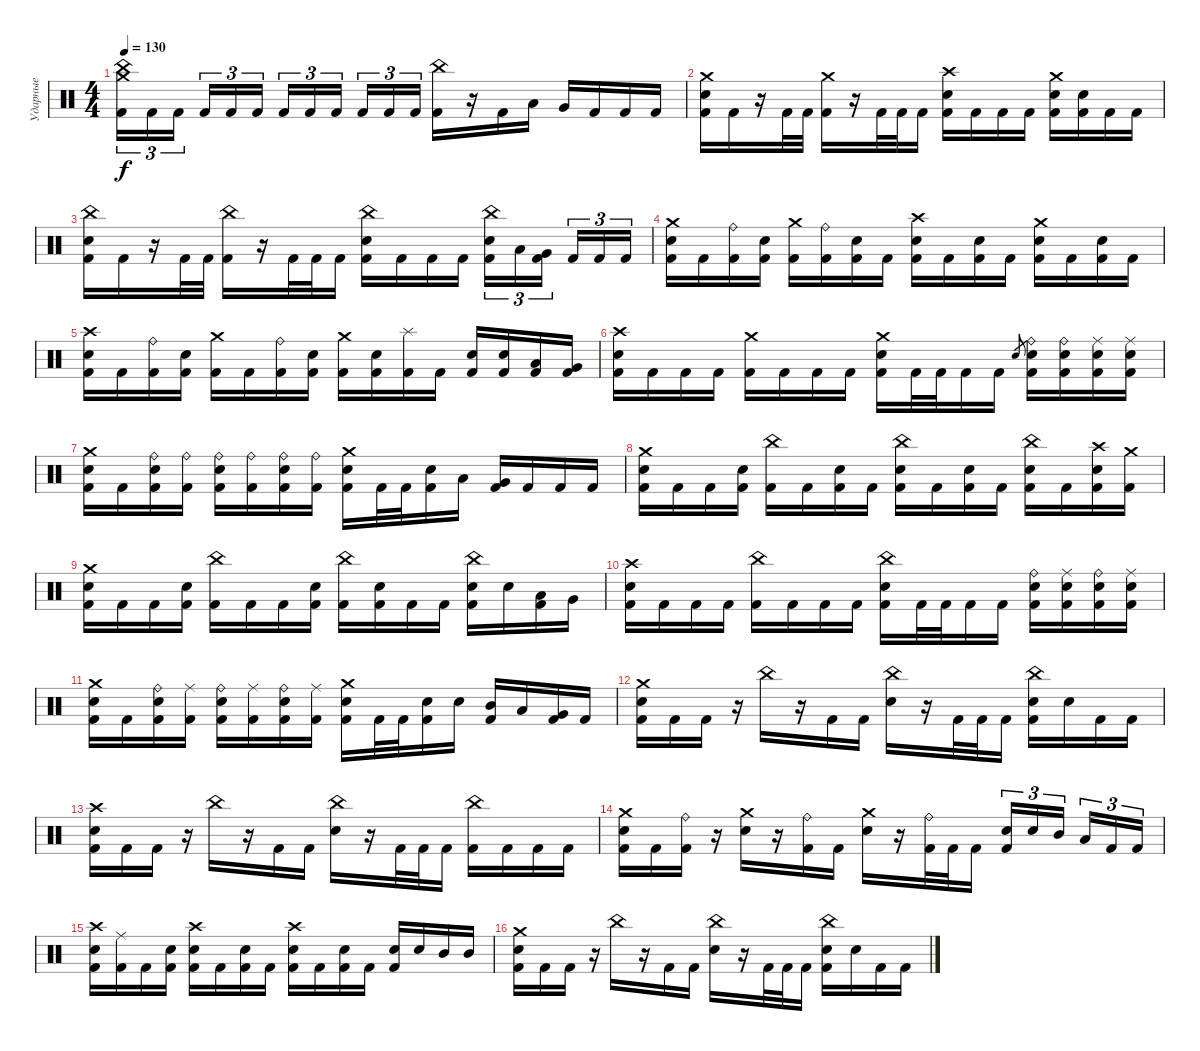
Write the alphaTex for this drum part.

\track ("Ударные" "Ударные") {instrument percussion}
\staff {score}
\articulation defaults
\ts (4 4)
\tempo 130
\clef neutral
\ks c
("China (hit)" "Crash medium (hit)" "Kick (hit) 2").16{tu (3 2) dy f} "Kick (hit) 2".16{tu (3 2)} "Kick (hit) 2".16{tu (3 2) beam splitsecondary} "Kick (hit) 2".16{tu (3 2)} "Kick (hit) 2".16{tu (3 2)} "Kick (hit) 2".16{tu (3 2)} "Kick (hit) 2".16{tu (3 2)} "Kick (hit) 2".16{tu (3 2)} "Kick (hit) 2".16{tu (3 2) beam splitsecondary} "Kick (hit) 2".16{tu (3 2)} "Kick (hit) 2".16{tu (3 2)} "Kick (hit) 2".16{tu (3 2)} ("China (hit)" "Kick (hit) 2").16 r.16 "Kick (hit) 2".16 "Low Tom (hit)".16 "Very Low Tom (hit)".16 "Kick (hit) 2".16 "Kick (hit) 2".16 "Kick (hit) 2".16 |
("Crash medium (hit)" "Electric Snare (hit)" "Kick (hit) 2").16 "Kick (hit) 2".16 r.16 "Kick (hit) 2".32 "Kick (hit) 2".32 ("Crash medium (hit)" "Kick (hit) 2").16 r.16 "Kick (hit) 2".32 "Kick (hit) 2".32 "Kick (hit) 2".16 ("Crash high (hit)" "Electric Snare (hit)" "Kick (hit) 2").16 "Kick (hit) 2".16 "Kick (hit) 2".16 "Kick (hit) 2".16 ("Crash medium (hit)" "Electric Snare (hit)" "Kick (hit) 2").16 ("Electric Snare (hit)" "Kick (hit) 2").16 "Kick (hit) 2".16 "Kick (hit) 2".16 |
("China (hit)" "Electric Snare (hit)" "Kick (hit) 2").16 "Kick (hit) 2".16 r.16 "Kick (hit) 2".32 "Kick (hit) 2".32 ("China (hit)" "Kick (hit) 2").16 r.16 "Kick (hit) 2".32 "Kick (hit) 2".32 "Kick (hit) 2".16 ("China (hit)" "Electric Snare (hit)" "Kick (hit) 2").16 "Kick (hit) 2".16 "Kick (hit) 2".16 "Kick (hit) 2".16 ("China (hit)" "Electric Snare (hit)" "Kick (hit) 2").16{tu (3 2)} "Low Tom (hit)".16{tu (3 2)} ("Very Low Tom (hit)" "Kick (hit) 2").16{tu (3 2) beam splitsecondary} "Kick (hit) 2".16{tu (3 2)} "Kick (hit) 2".16{tu (3 2)} "Kick (hit) 2".16{tu (3 2)} |
("Crash medium (hit)" "Electric Snare (hit)" "Kick (hit) 2").16 "Kick (hit) 2".16 ("Ride (bell)" "Kick (hit) 2").16 ("Electric Snare (hit)" "Kick (hit) 2").16 ("Crash medium (hit)" "Kick (hit) 2").16 ("Ride (bell)" "Kick (hit) 2").16 ("Electric Snare (hit)" "Kick (hit) 2").16 "Kick (hit) 2".16 ("Crash high (hit)" "Electric Snare (hit)" "Kick (hit) 2").16 "Kick (hit) 2".16 ("Electric Snare (hit)" "Kick (hit) 2").16 "Kick (hit) 2".16 ("Crash medium (hit)" "Electric Snare (hit)" "Kick (hit) 2").16 "Kick (hit) 2".16 ("Electric Snare (hit)" "Kick (hit) 2").16 "Kick (hit) 2".16 |
("Crash high (hit)" "Electric Snare (hit)" "Kick (hit) 2").16 "Kick (hit) 2".16 ("Ride (bell)" "Kick (hit) 2").16 ("Electric Snare (hit)" "Kick (hit) 2").16 ("Crash medium (hit)" "Kick (hit) 2").16 "Kick (hit) 2".16 ("Ride (bell)" "Kick (hit) 2").16 ("Electric Snare (hit)" "Kick (hit) 2").16 ("Crash medium (hit)" "Kick (hit) 2").16 ("Electric Snare (hit)" "Kick (hit) 2").16 ("Splash (hit)" "Kick (hit) 2").16 "Kick (hit) 2".16 ("Electric Snare (hit)" "Kick (hit) 2").16 ("Electric Snare (hit)" "Kick (hit) 2").16 ("Low Tom (hit)" "Kick (hit) 2").16 ("Very Low Tom (hit)" "Kick (hit) 2").16 |
("Crash high (hit)" "Electric Snare (hit)" "Kick (hit) 2").16 "Kick (hit) 2".16 "Kick (hit) 2".16 "Kick (hit) 2".16 ("Crash medium (hit)" "Kick (hit) 2").16 "Kick (hit) 2".16 "Kick (hit) 2".16 "Kick (hit) 2".16 ("Crash medium (hit)" "Electric Snare (hit)" "Kick (hit) 2").16 "Kick (hit) 2".32 "Kick (hit) 2".32 "Kick (hit) 2".16 "Kick (hit) 2".16 "Electric Snare (hit)".8{gr} ("Ride (bell)" "Electric Snare (hit)" "Kick (hit) 2").16 ("Ride (bell)" "Electric Snare (hit)" "Kick (hit) 2").16 ("Ride (middle)" "Electric Snare (hit)" "Kick (hit) 2").16 ("Ride (middle)" "Electric Snare (hit)" "Kick (hit) 2").16 |
("Crash medium (hit)" "Electric Snare (hit)" "Kick (hit) 2").16 "Kick (hit) 2".16 ("Ride (bell)" "Electric Snare (hit)" "Kick (hit) 2").16 ("Ride (bell)" "Kick (hit) 2").16 ("Ride (bell)" "Electric Snare (hit)" "Kick (hit) 2").16 ("Ride (bell)" "Kick (hit) 2").16 ("Ride (bell)" "Electric Snare (hit)" "Kick (hit) 2").16 ("Ride (bell)" "Kick (hit) 2").16 ("Crash medium (hit)" "Electric Snare (hit)" "Kick (hit) 2").16 "Kick (hit) 2".32 "Kick (hit) 2".32 ("Electric Snare (hit)" "Kick (hit) 2").16 "Low Tom (hit)".16 ("Very Low Tom (hit)" "Kick (hit) 2").16 "Kick (hit) 2".16 "Kick (hit) 2".16 "Kick (hit) 2".16 |
("Crash medium (hit)" "Electric Snare (hit)" "Kick (hit) 2").16 "Kick (hit) 2".16 "Kick (hit) 2".16 ("Electric Snare (hit)" "Kick (hit) 2").16 ("China (hit)" "Kick (hit) 2").16 "Kick (hit) 2".16 ("Electric Snare (hit)" "Kick (hit) 2").16 "Kick (hit) 2".16 ("China (hit)" "Electric Snare (hit)" "Kick (hit) 2").16 "Kick (hit) 2".16 ("Electric Snare (hit)" "Kick (hit) 2").16 "Kick (hit) 2".16 ("China (hit)" "Electric Snare (hit)" "Kick (hit) 2").16 "Kick (hit) 2".16 ("Crash high (hit)" "Electric Snare (hit)" "Kick (hit) 2").16 ("Crash medium (hit)" "Kick (hit) 2").16 |
("Crash medium (hit)" "Electric Snare (hit)" "Kick (hit) 2").16 "Kick (hit) 2".16 "Kick (hit) 2".16 ("Electric Snare (hit)" "Kick (hit) 2").16 ("China (hit)" "Kick (hit) 2").16 "Kick (hit) 2".16 "Kick (hit) 2".16 ("Electric Snare (hit)" "Kick (hit) 2").16 ("China (hit)" "Kick (hit) 2").16 ("Electric Snare (hit)" "Kick (hit) 2").16 "Kick (hit) 2".16 "Kick (hit) 2".16 ("China (hit)" "Electric Snare (hit)" "Kick (hit) 2").16 "Electric Snare (hit)".16 ("Low Tom (hit)" "Kick (hit) 2").16 "Very Low Tom (hit)".16 |
("Crash high (hit)" "Electric Snare (hit)" "Kick (hit) 2").16 "Kick (hit) 2".16 "Kick (hit) 2".16 "Kick (hit) 2".16 ("China (hit)" "Kick (hit) 2").16 "Kick (hit) 2".16 "Kick (hit) 2".16 "Kick (hit) 2".16 ("China (hit)" "Electric Snare (hit)" "Kick (hit) 2").16 "Kick (hit) 2".32 "Kick (hit) 2".32 "Kick (hit) 2".16 "Kick (hit) 2".16 ("Ride (bell)" "Electric Snare (hit)" "Kick (hit) 2").16 ("Ride (middle)" "Electric Snare (hit)" "Kick (hit) 2").16 ("Ride (bell)" "Electric Snare (hit)" "Kick (hit) 2").16 ("Ride (middle)" "Electric Snare (hit)" "Kick (hit) 2").16 |
("Crash medium (hit)" "Electric Snare (hit)" "Kick (hit) 2").16 "Kick (hit) 2".16 ("Ride (bell)" "Electric Snare (hit)" "Kick (hit) 2").16 ("Ride (middle)" "Kick (hit) 2").16 ("Ride (bell)" "Electric Snare (hit)" "Kick (hit) 2").16 ("Ride (middle)" "Kick (hit) 2").16 ("Ride (bell)" "Electric Snare (hit)" "Kick (hit) 2").16 ("Ride (middle)" "Kick (hit) 2").16 ("Crash medium (hit)" "Electric Snare (hit)" "Kick (hit) 2").16 "Kick (hit) 2".32 "Kick (hit) 2".32 ("Electric Snare (hit)" "Kick (hit) 2").16 "Electric Snare (hit)".16 ("Mid Tom (hit)" "Kick (hit) 2").16 "Low Tom (hit)".16 ("Very Low Tom (hit)" "Kick (hit) 2").16 "Kick (hit) 2".16 |
("Crash medium (hit)" "Electric Snare (hit)" "Kick (hit) 2").16 "Kick (hit) 2".16 "Kick (hit) 2".16 r.16 "China (hit)".16 r.16 "Kick (hit) 2".16 "Kick (hit) 2".16 ("China (hit)" "Electric Snare (hit)").16 r.16 "Kick (hit) 2".32 "Kick (hit) 2".32 "Kick (hit) 2".16 ("China (hit)" "Electric Snare (hit)" "Kick (hit) 2").16 "Electric Snare (hit)".16 "Kick (hit) 2".16 "Kick (hit) 2".16 |
("Crash high (hit)" "Electric Snare (hit)" "Kick (hit) 2").16 "Kick (hit) 2".16 "Kick (hit) 2".16 r.16 "China (hit)".16 r.16 "Kick (hit) 2".16 "Kick (hit) 2".16 ("China (hit)" "Electric Snare (hit)").16 r.16 "Kick (hit) 2".32 "Kick (hit) 2".32 "Kick (hit) 2".16 ("China (hit)" "Kick (hit) 2").16 "Kick (hit) 2".16 "Kick (hit) 2".16 "Kick (hit) 2".16 |
("Crash medium (hit)" "Electric Snare (hit)" "Kick (hit) 2").16 "Kick (hit) 2".16 ("Ride (bell)" "Kick (hit) 2").16 r.16 ("Crash medium (hit)" "Electric Snare (hit)").16 r.16 ("Ride (bell)" "Kick (hit) 2").16 "Kick (hit) 2".16 ("Crash medium (hit)" "Electric Snare (hit)").16 r.16 ("Ride (bell)" "Kick (hit) 2").32 "Kick (hit) 2".32 "Kick (hit) 2".16 ("Electric Snare (hit)" "Kick (hit) 2").16{tu (3 2)} "Electric Snare (hit)".16{tu (3 2)} "Mid Tom (hit)".16{tu (3 2) beam splitsecondary} "Low Tom (hit)".16{tu (3 2)} "Kick (hit) 2".16{tu (3 2)} "Kick (hit) 2".16{tu (3 2)} |
("Crash high (hit)" "Electric Snare (hit)" "Kick (hit) 2").16 ("Ride (middle)" "Kick (hit) 2").16 "Kick (hit) 2".16 ("Electric Snare (hit)" "Kick (hit) 2").16 ("Crash high (hit)" "Electric Snare (hit)" "Kick (hit) 2").16 "Kick (hit) 2".16 ("Electric Snare (hit)" "Kick (hit) 2").16 "Kick (hit) 2".16 ("Crash high (hit)" "Electric Snare (hit)" "Kick (hit) 2").16 "Kick (hit) 2".16 ("Electric Snare (hit)" "Kick (hit) 2").16 "Kick (hit) 2".16 ("Electric Snare (hit)" "Kick (hit) 2").16 "Electric Snare (hit)".16 "Mid Tom (hit)".16 "Mid Tom (hit)".16 |
("Crash medium (hit)" "Electric Snare (hit)" "Kick (hit) 2").16 "Kick (hit) 2".16 "Kick (hit) 2".16 r.16 "China (hit)".16 r.16 "Kick (hit) 2".16 "Kick (hit) 2".16 ("China (hit)" "Electric Snare (hit)").16 r.16 "Kick (hit) 2".32 "Kick (hit) 2".32 "Kick (hit) 2".16 ("China (hit)" "Electric Snare (hit)" "Kick (hit) 2").16 "Electric Snare (hit)".16 "Kick (hit) 2".16 "Kick (hit) 2".16
